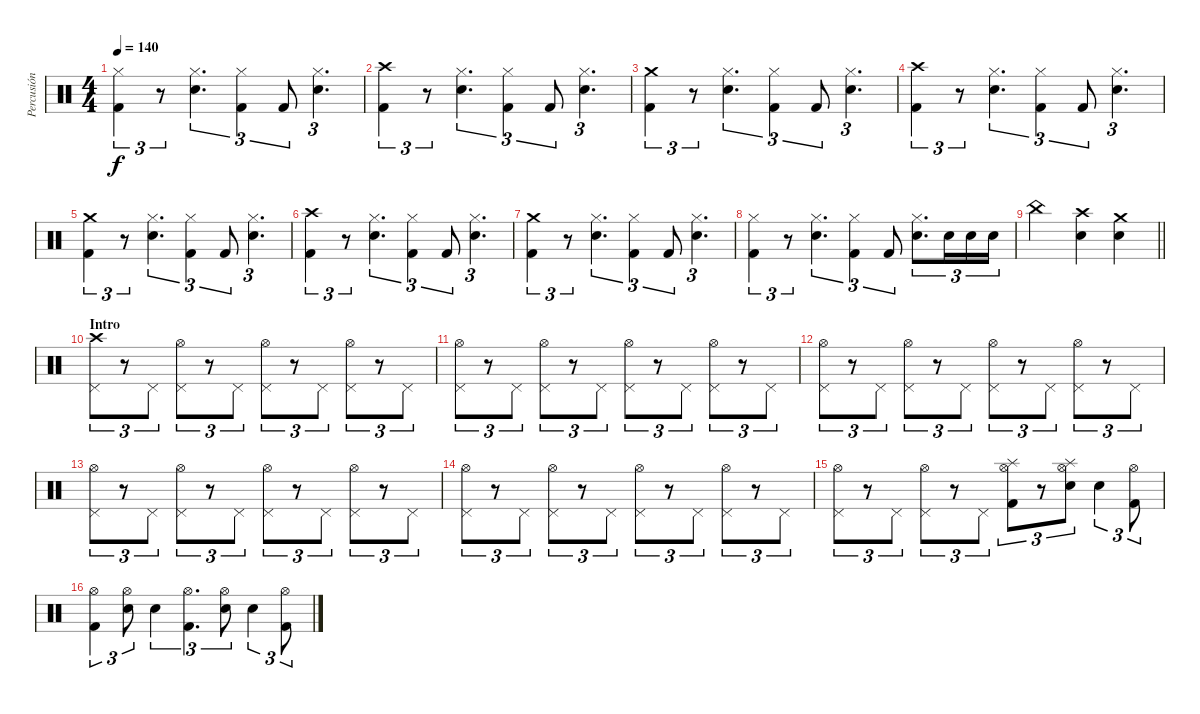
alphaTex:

\track ("Percusión" "Percusión") {instrument percussion}
\staff {score}
\articulation defaults
\ts (4 4)
\tempo 140
\clef neutral
\ks c
("Hi-Hat (closed)" "Kick (hit) 2").4{tu (3 2) dy f} r.8{tu (3 2)} ("Hi-Hat (closed)" "Snare (hit) 2").4{d tu (3 2)} ("Hi-Hat (closed)" "Kick (hit) 2").4{tu (3 2)} "Kick (hit) 2".8{tu (3 2)} ("Hi-Hat (closed)" "Snare (hit) 2").4{d tu (3 2)} |
("Crash high (hit)" "Kick (hit) 2").4{tu (3 2)} r.8{tu (3 2)} ("Hi-Hat (closed)" "Snare (hit) 2").4{d tu (3 2)} ("Hi-Hat (closed)" "Kick (hit) 2").4{tu (3 2)} "Kick (hit) 2".8{tu (3 2)} ("Hi-Hat (closed)" "Snare (hit) 2").4{d tu (3 2)} |
("Crash medium (hit)" "Kick (hit) 2").4{tu (3 2)} r.8{tu (3 2)} ("Hi-Hat (closed)" "Snare (hit) 2").4{d tu (3 2)} ("Hi-Hat (closed)" "Kick (hit) 2").4{tu (3 2)} "Kick (hit) 2".8{tu (3 2)} ("Hi-Hat (closed)" "Snare (hit) 2").4{d tu (3 2)} |
("Crash high (hit)" "Kick (hit) 2").4{tu (3 2)} r.8{tu (3 2)} ("Hi-Hat (closed)" "Snare (hit) 2").4{d tu (3 2)} ("Hi-Hat (closed)" "Kick (hit) 2").4{tu (3 2)} "Kick (hit) 2".8{tu (3 2)} ("Hi-Hat (closed)" "Snare (hit) 2").4{d tu (3 2)} |
("Crash medium (hit)" "Kick (hit) 2").4{tu (3 2)} r.8{tu (3 2)} ("Hi-Hat (closed)" "Snare (hit) 2").4{d tu (3 2)} ("Hi-Hat (closed)" "Kick (hit) 2").4{tu (3 2)} "Kick (hit) 2".8{tu (3 2)} ("Hi-Hat (closed)" "Snare (hit) 2").4{d tu (3 2)} |
("Crash high (hit)" "Kick (hit) 2").4{tu (3 2)} r.8{tu (3 2)} ("Hi-Hat (closed)" "Snare (hit) 2").4{d tu (3 2)} ("Hi-Hat (closed)" "Kick (hit) 2").4{tu (3 2)} "Kick (hit) 2".8{tu (3 2)} ("Hi-Hat (closed)" "Snare (hit) 2").4{d tu (3 2)} |
("Crash medium (hit)" "Kick (hit) 2").4{tu (3 2)} r.8{tu (3 2)} ("Hi-Hat (closed)" "Snare (hit) 2").4{d tu (3 2)} ("Hi-Hat (closed)" "Kick (hit) 2").4{tu (3 2)} "Kick (hit) 2".8{tu (3 2)} ("Hi-Hat (closed)" "Snare (hit) 2").4{d tu (3 2)} |
("Hi-Hat (closed)" "Kick (hit) 2").4{tu (3 2)} r.8{tu (3 2)} ("Hi-Hat (closed)" "Snare (hit) 2").4{d tu (3 2)} ("Hi-Hat (closed)" "Kick (hit) 2").4{tu (3 2)} "Kick (hit) 2".8{tu (3 2)} ("Hi-Hat (closed)" "Snare (hit) 2").8{d tu (3 2)} "Snare (hit) 2".16{tu (3 2)} "Snare (hit) 2".16{tu (3 2)} "Snare (hit) 2".16{tu (3 2)} |
\barLineRight lightlight "China (hit)".2
("Crash high (hit)" "Snare (hit) 2").4 ("Crash medium (hit)" "Snare (hit) 2").4 |
\section ("" "Intro")
("Crash high (hit)" "Pedal Hi-Hat (hit)").8{tu (3 2)} r.8{tu (3 2)} "Pedal Hi-Hat (hit)".8{tu (3 2)} ("Hi-Hat (open)" "Pedal Hi-Hat (hit)").8{tu (3 2)} r.8{tu (3 2)} "Pedal Hi-Hat (hit)".8{tu (3 2)} ("Hi-Hat (open)" "Pedal Hi-Hat (hit)").8{tu (3 2)} r.8{tu (3 2)} "Pedal Hi-Hat (hit)".8{tu (3 2)} ("Hi-Hat (open)" "Pedal Hi-Hat (hit)").8{tu (3 2)} r.8{tu (3 2)} "Pedal Hi-Hat (hit)".8{tu (3 2)} |
("Hi-Hat (open)" "Pedal Hi-Hat (hit)").8{tu (3 2)} r.8{tu (3 2)} "Pedal Hi-Hat (hit)".8{tu (3 2)} ("Hi-Hat (open)" "Pedal Hi-Hat (hit)").8{tu (3 2)} r.8{tu (3 2)} "Pedal Hi-Hat (hit)".8{tu (3 2)} ("Hi-Hat (open)" "Pedal Hi-Hat (hit)").8{tu (3 2)} r.8{tu (3 2)} "Pedal Hi-Hat (hit)".8{tu (3 2)} ("Hi-Hat (open)" "Pedal Hi-Hat (hit)").8{tu (3 2)} r.8{tu (3 2)} "Pedal Hi-Hat (hit)".8{tu (3 2)} |
("Hi-Hat (open)" "Pedal Hi-Hat (hit)").8{tu (3 2)} r.8{tu (3 2)} "Pedal Hi-Hat (hit)".8{tu (3 2)} ("Hi-Hat (open)" "Pedal Hi-Hat (hit)").8{tu (3 2)} r.8{tu (3 2)} "Pedal Hi-Hat (hit)".8{tu (3 2)} ("Hi-Hat (open)" "Pedal Hi-Hat (hit)").8{tu (3 2)} r.8{tu (3 2)} "Pedal Hi-Hat (hit)".8{tu (3 2)} ("Hi-Hat (open)" "Pedal Hi-Hat (hit)").8{tu (3 2)} r.8{tu (3 2)} "Pedal Hi-Hat (hit)".8{tu (3 2)} |
("Hi-Hat (open)" "Pedal Hi-Hat (hit)").8{tu (3 2)} r.8{tu (3 2)} "Pedal Hi-Hat (hit)".8{tu (3 2)} ("Hi-Hat (open)" "Pedal Hi-Hat (hit)").8{tu (3 2)} r.8{tu (3 2)} "Pedal Hi-Hat (hit)".8{tu (3 2)} ("Hi-Hat (open)" "Pedal Hi-Hat (hit)").8{tu (3 2)} r.8{tu (3 2)} "Pedal Hi-Hat (hit)".8{tu (3 2)} ("Hi-Hat (open)" "Pedal Hi-Hat (hit)").8{tu (3 2)} r.8{tu (3 2)} "Pedal Hi-Hat (hit)".8{tu (3 2)} |
("Hi-Hat (open)" "Pedal Hi-Hat (hit)").8{tu (3 2)} r.8{tu (3 2)} "Pedal Hi-Hat (hit)".8{tu (3 2)} ("Hi-Hat (open)" "Pedal Hi-Hat (hit)").8{tu (3 2)} r.8{tu (3 2)} "Pedal Hi-Hat (hit)".8{tu (3 2)} ("Hi-Hat (open)" "Pedal Hi-Hat (hit)").8{tu (3 2)} r.8{tu (3 2)} "Pedal Hi-Hat (hit)".8{tu (3 2)} ("Hi-Hat (open)" "Pedal Hi-Hat (hit)").8{tu (3 2)} r.8{tu (3 2)} "Pedal Hi-Hat (hit)".8{tu (3 2)} |
("Hi-Hat (open)" "Pedal Hi-Hat (hit)").8{tu (3 2)} r.8{tu (3 2)} "Pedal Hi-Hat (hit)".8{tu (3 2)} ("Hi-Hat (open)" "Pedal Hi-Hat (hit)").8{tu (3 2)} r.8{tu (3 2)} "Pedal Hi-Hat (hit)".8{tu (3 2)} ("Hi-Hat (open)" "Splash (hit)" "Kick (hit) 2").8{tu (3 2)} r.8{tu (3 2)} ("Hi-Hat (open)" "Splash (hit)" "Snare (hit) 2").8{tu (3 2)} "Snare (hit) 2".4{tu (3 2)} ("Hi-Hat (open)" "Kick (hit) 2").8{tu (3 2)} |
("Hi-Hat (open)" "Kick (hit) 2").4{tu (3 2)} ("Hi-Hat (open)" "Snare (hit) 2").8{tu (3 2)} "Snare (hit) 2".4{tu (3 2)} ("Hi-Hat (open)" "Kick (hit) 2").4{d tu (3 2)} ("Hi-Hat (open)" "Snare (hit) 2").8{tu (3 2)} "Snare (hit) 2".4{tu (3 2)} ("Hi-Hat (open)" "Kick (hit) 2").8{tu (3 2)}
